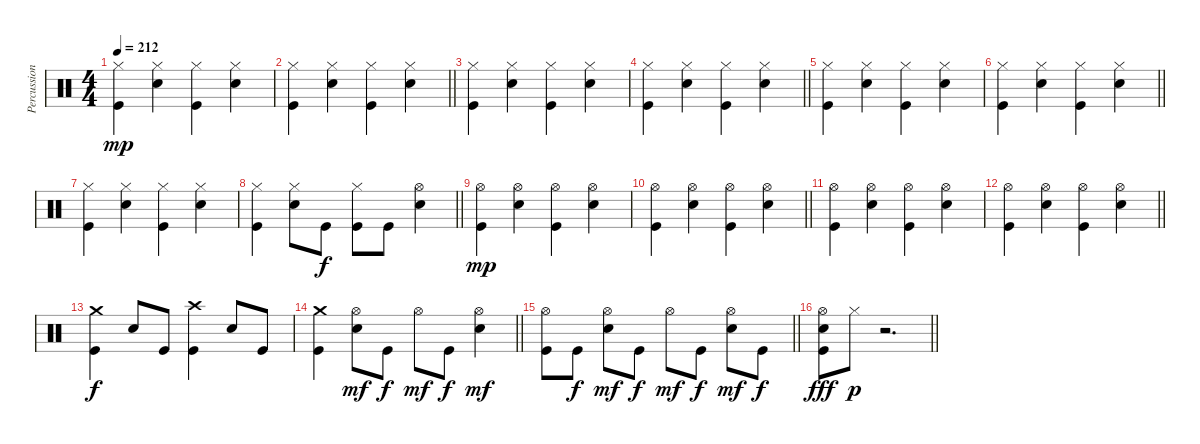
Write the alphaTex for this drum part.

\track ("Percussion" "Percussion") {instrument percussion}
\staff {score}
\articulation defaults
\ts (4 4)
\tempo 212
\clef neutral
\ks c
("Hi-Hat (closed)" "Kick (hit)").4{dy mp} ("Hi-Hat (closed)" "Snare (hit) 2").4 ("Hi-Hat (closed)" "Kick (hit)").4 ("Hi-Hat (closed)" "Snare (hit) 2").4 |
\barLineRight lightlight
("Hi-Hat (closed)" "Kick (hit)").4 ("Hi-Hat (closed)" "Snare (hit) 2").4 ("Hi-Hat (closed)" "Kick (hit)").4 ("Hi-Hat (closed)" "Snare (hit) 2").4 |
("Hi-Hat (closed)" "Kick (hit)").4 ("Hi-Hat (closed)" "Snare (hit) 2").4 ("Hi-Hat (closed)" "Kick (hit)").4 ("Hi-Hat (closed)" "Snare (hit) 2").4 |
\barLineRight lightlight
("Hi-Hat (closed)" "Kick (hit)").4 ("Hi-Hat (closed)" "Snare (hit) 2").4 ("Hi-Hat (closed)" "Kick (hit)").4 ("Hi-Hat (closed)" "Snare (hit) 2").4 |
("Hi-Hat (closed)" "Kick (hit)").4 ("Hi-Hat (closed)" "Snare (hit) 2").4 ("Hi-Hat (closed)" "Kick (hit)").4 ("Hi-Hat (closed)" "Snare (hit) 2").4 |
\barLineRight lightlight
("Hi-Hat (closed)" "Kick (hit)").4 ("Hi-Hat (closed)" "Snare (hit) 2").4 ("Hi-Hat (closed)" "Kick (hit)").4 ("Hi-Hat (closed)" "Snare (hit) 2").4 |
("Hi-Hat (closed)" "Kick (hit)").4 ("Hi-Hat (closed)" "Snare (hit) 2").4 ("Hi-Hat (closed)" "Kick (hit)").4 ("Hi-Hat (closed)" "Snare (hit) 2").4 |
\barLineRight lightlight
("Hi-Hat (closed)" "Kick (hit)").4 ("Hi-Hat (closed)" "Snare (hit) 2").8 "Kick (hit)".8{dy f} ("Hi-Hat (closed)" "Kick (hit)").8 "Kick (hit)".8 ("Hi-Hat (open)" "Snare (hit) 2").4 |
("Hi-Hat (open)" "Kick (hit)").4{dy mp} ("Hi-Hat (open)" "Snare (hit) 2").4 ("Hi-Hat (open)" "Kick (hit)").4 ("Hi-Hat (open)" "Snare (hit) 2").4 |
\barLineRight lightlight
("Hi-Hat (open)" "Kick (hit)").4 ("Hi-Hat (open)" "Snare (hit) 2").4 ("Hi-Hat (open)" "Kick (hit)").4 ("Hi-Hat (open)" "Snare (hit) 2").4 |
("Hi-Hat (open)" "Kick (hit)").4 ("Hi-Hat (open)" "Snare (hit) 2").4 ("Hi-Hat (open)" "Kick (hit)").4 ("Hi-Hat (open)" "Snare (hit) 2").4 |
\barLineRight lightlight
("Hi-Hat (open)" "Kick (hit)").4 ("Hi-Hat (open)" "Snare (hit) 2").4 ("Hi-Hat (open)" "Kick (hit)").4 ("Hi-Hat (open)" "Snare (hit) 2").4 |
("Crash medium (hit)" "Kick (hit)").4{dy f} "Snare (hit) 2".8 "Kick (hit)".8 ("Crash high (hit)" "Kick (hit)").4 "Snare (hit) 2".8 "Kick (hit)".8 |
\barLineRight lightlight
("Crash medium (hit)" "Kick (hit)").4 ("Hi-Hat (open)" "Snare (hit) 2").8{dy mf} "Kick (hit)".8{dy f} "Hi-Hat (open)".8{dy mf} "Kick (hit)".8{dy f} ("Hi-Hat (open)" "Snare (hit) 2").4{dy mf} |
\barLineRight lightlight
("Hi-Hat (open)" "Kick (hit)").8 "Kick (hit)".8{dy f} ("Hi-Hat (open)" "Snare (hit) 2").8{dy mf} "Kick (hit)".8{dy f} "Hi-Hat (open)".8{dy mf} "Kick (hit)".8{dy f} ("Hi-Hat (open)" "Snare (hit) 2").8{dy mf} "Kick (hit)".8{dy f} |
\barLineRight lightlight
("Hi-Hat (open)" "Snare (hit) 2" "Kick (hit)").8{dy fff} "Hi-Hat (closed)".8{dy p} r.2{d}
